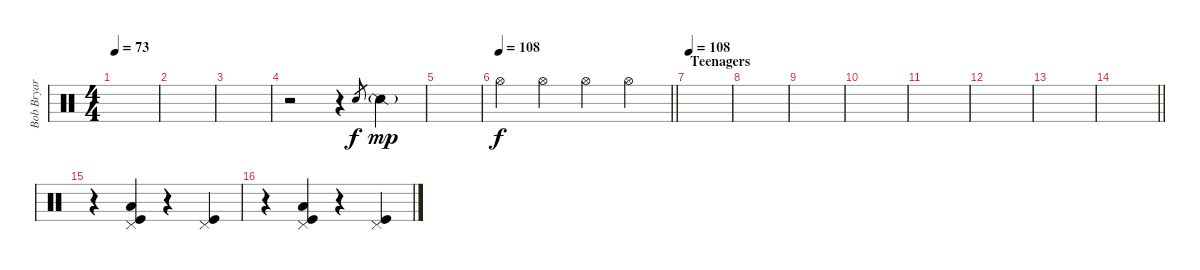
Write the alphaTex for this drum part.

\track ("Bob Bryar [Drums]" "Bob Bryar ") {instrument percussion}
\staff {score}
\articulation defaults
\ts (4 4)
\tempo 73
\clef neutral
\ks c
|
|
|
r.2 r.4 "Snare (hit)".8{gr} "Snare (side stick) 2"{g}.4{dy mp} |
|
\tempo 108
\barLineRight lightlight "Hi-Hat (open)".4{dy f} "Hi-Hat (open)".4 "Hi-Hat (open)".4 "Hi-Hat (open)".4
|
\section ("" "Teenagers")
\tempo 108
|
|
|
|
|
|
|
\barLineRight lightlight
|
r.4 ("Pedal Hi-Hat (hit)" "Low Floor Tom (hit)" "Kick (hit)").4 r.4 ("Pedal Hi-Hat (hit)" "Kick (hit)").4 |
r.4 ("Pedal Hi-Hat (hit)" "Low Floor Tom (hit)" "Kick (hit)").4 r.4 ("Pedal Hi-Hat (hit)" "Kick (hit)").4
